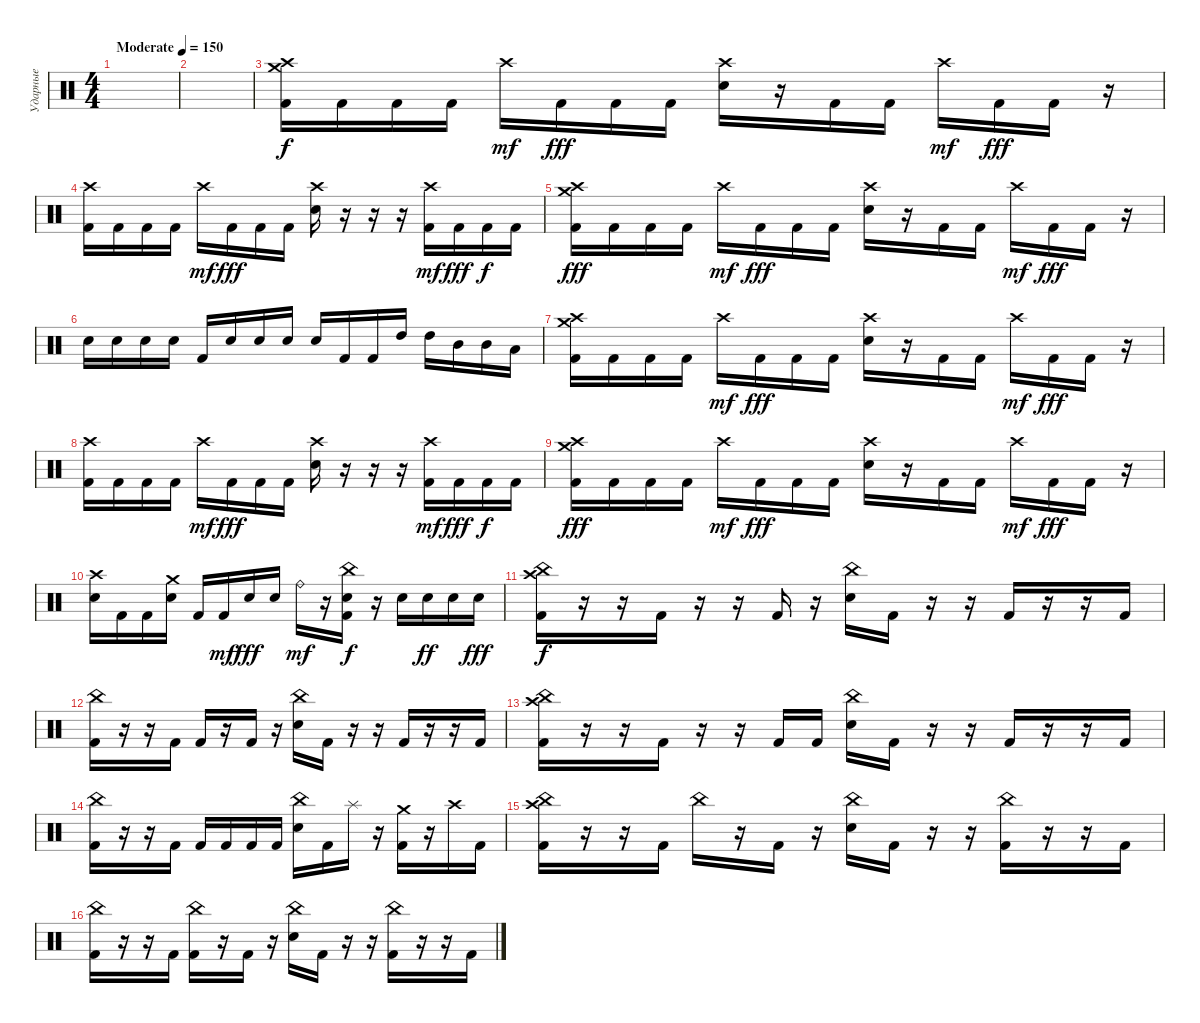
\track ("Ударные" "Ударные") {instrument percussion}
\staff {score}
\articulation defaults
\ts (4 4)
\tempo (150 "Moderate")
\clef neutral
\ks c
|
|
("Crash high (hit)" "Crash medium (hit)" "Kick (hit) 2").16 "Kick (hit) 2".16 "Kick (hit) 2".16 "Kick (hit) 2".16 "Crash high (hit)".16{dy mf} "Kick (hit) 2".16{dy fff} "Kick (hit) 2".16 "Kick (hit) 2".16 ("Crash high (hit)" "Electric Snare (hit)").16 r.16 "Kick (hit) 2".16 "Kick (hit) 2".16 "Crash high (hit)".16{dy mf} "Kick (hit) 2".16{dy fff} "Kick (hit) 2".16 r.16 |
("Crash high (hit)" "Kick (hit) 2").16 "Kick (hit) 2".16 "Kick (hit) 2".16 "Kick (hit) 2".16 "Crash high (hit)".16{dy mf} "Kick (hit) 2".16{dy fff} "Kick (hit) 2".16 "Kick (hit) 2".16 ("Crash high (hit)" "Electric Snare (hit)").16 r.16 r.16 r.16 ("Crash high (hit)" "Kick (hit) 2").16{dy mf} "Kick (hit) 2".16{dy fff} "Kick (hit) 2".16{dy f} "Kick (hit) 2".16 |
("Crash high (hit)" "Crash medium (hit)" "Kick (hit) 2").16{dy fff} "Kick (hit) 2".16 "Kick (hit) 2".16 "Kick (hit) 2".16 "Crash high (hit)".16{dy mf} "Kick (hit) 2".16{dy fff} "Kick (hit) 2".16 "Kick (hit) 2".16 ("Crash high (hit)" "Electric Snare (hit)").16 r.16 "Kick (hit) 2".16 "Kick (hit) 2".16 "Crash high (hit)".16{dy mf} "Kick (hit) 2".16{dy fff} "Kick (hit) 2".16 r.16 |
"Electric Snare (hit)".16 "Electric Snare (hit)".16 "Electric Snare (hit)".16 "Electric Snare (hit)".16 "Kick (hit) 2".16 "Electric Snare (hit)".16 "Electric Snare (hit)".16 "Electric Snare (hit)".16 "Electric Snare (hit)".16 "Kick (hit) 2".16 "Kick (hit) 2".16 "High Tom (hit)".16 "High Tom (hit)".16 "Mid Tom (hit)".16 "Mid Tom (hit)".16 "Low Tom (hit)".16 |
("Crash high (hit)" "Crash medium (hit)" "Kick (hit) 2").16 "Kick (hit) 2".16 "Kick (hit) 2".16 "Kick (hit) 2".16 "Crash high (hit)".16{dy mf} "Kick (hit) 2".16{dy fff} "Kick (hit) 2".16 "Kick (hit) 2".16 ("Crash high (hit)" "Electric Snare (hit)").16 r.16 "Kick (hit) 2".16 "Kick (hit) 2".16 "Crash high (hit)".16{dy mf} "Kick (hit) 2".16{dy fff} "Kick (hit) 2".16 r.16 |
("Crash high (hit)" "Kick (hit) 2").16 "Kick (hit) 2".16 "Kick (hit) 2".16 "Kick (hit) 2".16 "Crash high (hit)".16{dy mf} "Kick (hit) 2".16{dy fff} "Kick (hit) 2".16 "Kick (hit) 2".16 ("Crash high (hit)" "Electric Snare (hit)").16 r.16 r.16 r.16 ("Crash high (hit)" "Kick (hit) 2").16{dy mf} "Kick (hit) 2".16{dy fff} "Kick (hit) 2".16{dy f} "Kick (hit) 2".16 |
("Crash high (hit)" "Crash medium (hit)" "Kick (hit) 2").16{dy fff} "Kick (hit) 2".16 "Kick (hit) 2".16 "Kick (hit) 2".16 "Crash high (hit)".16{dy mf} "Kick (hit) 2".16{dy fff} "Kick (hit) 2".16 "Kick (hit) 2".16 ("Crash high (hit)" "Electric Snare (hit)").16 r.16 "Kick (hit) 2".16 "Kick (hit) 2".16 "Crash high (hit)".16{dy mf} "Kick (hit) 2".16{dy fff} "Kick (hit) 2".16 r.16 |
("Crash high (hit)" "Electric Snare (hit)").16 "Kick (hit) 2".16 "Kick (hit) 2".16 ("Crash medium (hit)" "Electric Snare (hit)").16 "Kick (hit) 2".16 "Kick (hit) 2".16{dy mf} "Electric Snare (hit)".16{dy fff} "Electric Snare (hit)".16 "Ride (bell)".16{dy mf} r.16 ("China (hit)" "Electric Snare (hit)" "Kick (hit) 2").16{dy f} r.16 "Electric Snare (hit)".16 "Electric Snare (hit)".16{dy ff} "Electric Snare (hit)".16 "Electric Snare (hit)".16{dy fff} |
("Crash high (hit)" "China (hit)" "Kick (hit) 2").16{dy f} r.16 r.16 "Kick (hit) 2".16 r.16 r.16 "Kick (hit) 2".16 r.16 ("China (hit)" "Electric Snare (hit)").16 "Kick (hit) 2".16 r.16 r.16 "Kick (hit) 2".16 r.16 r.16 "Kick (hit) 2".16 |
("China (hit)" "Kick (hit) 2").16 r.16 r.16 "Kick (hit) 2".16 "Kick (hit) 2".16 r.16 "Kick (hit) 2".16 r.16 ("China (hit)" "Electric Snare (hit)").16 "Kick (hit) 2".16 r.16 r.16 "Kick (hit) 2".16 r.16 r.16 "Kick (hit) 2".16 |
("Crash high (hit)" "China (hit)" "Kick (hit) 2").16 r.16 r.16 "Kick (hit) 2".16 r.16 r.16 "Kick (hit) 2".16 "Kick (hit) 2".16 ("China (hit)" "Electric Snare (hit)").16 "Kick (hit) 2".16 r.16 r.16 "Kick (hit) 2".16 r.16 r.16 "Kick (hit) 2".16 |
("China (hit)" "Kick (hit) 2").16 r.16 r.16 "Kick (hit) 2".16 "Kick (hit) 2".16 "Kick (hit) 2".16 "Kick (hit) 2".16 "Kick (hit) 2".16 ("China (hit)" "Electric Snare (hit)").16 "Kick (hit) 2".16 "Splash (hit)".16 r.16 ("Crash medium (hit)" "Kick (hit) 2").16 r.16 "Crash high (hit)".16 "Kick (hit) 2".16 |
("Crash high (hit)" "China (hit)" "Kick (hit) 2").16 r.16 r.16 "Kick (hit) 2".16 "China (hit)".16 r.16 "Kick (hit) 2".16 r.16 ("China (hit)" "Electric Snare (hit)").16 "Kick (hit) 2".16 r.16 r.16 ("China (hit)" "Kick (hit) 2").16 r.16 r.16 "Kick (hit) 2".16 |
("China (hit)" "Kick (hit) 2").16 r.16 r.16 "Kick (hit) 2".16 ("China (hit)" "Kick (hit) 2").16 r.16 "Kick (hit) 2".16 r.16 ("China (hit)" "Electric Snare (hit)").16 "Kick (hit) 2".16 r.16 r.16 ("China (hit)" "Kick (hit) 2").16 r.16 r.16 "Kick (hit) 2".16
